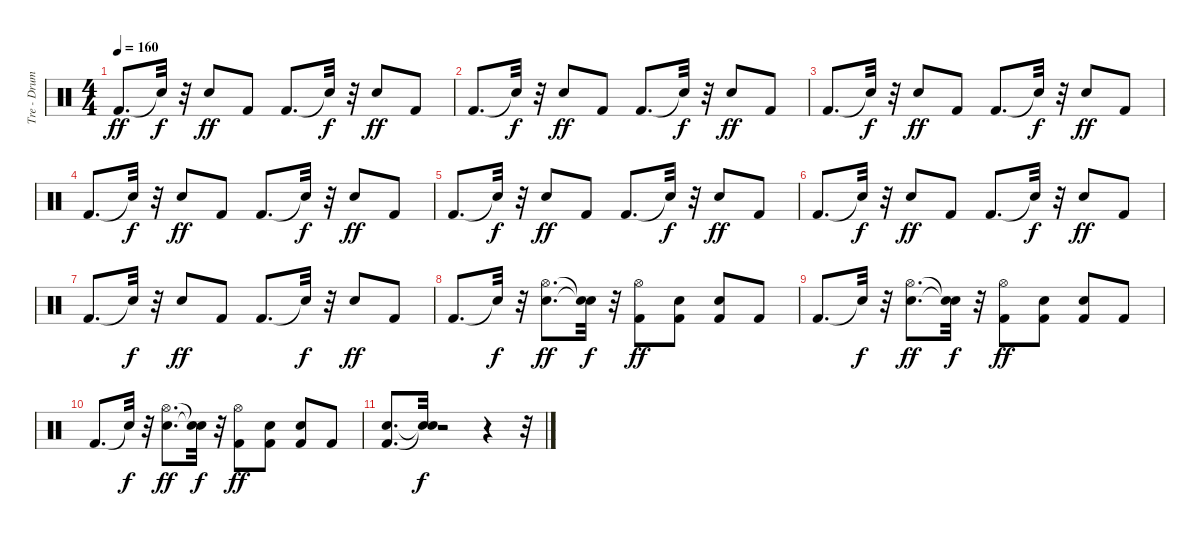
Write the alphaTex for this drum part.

\track ("Tre - Drums-2" "Tre - Drum") {instrument percussion}
\staff {score}
\articulation defaults
\ts (4 4)
\tempo 160
\clef neutral
\ks c "Kick (hit) 2".8{d dy ff} "Snare (hit)"{t}.32{dy f}
r.32 "Electric Snare (hit)".8{dy ff} "Kick (hit) 2".8 "Kick (hit) 2".8{d} "Snare (hit)"{t}.32{dy f} r.32 "Electric Snare (hit)".8{dy ff} "Kick (hit) 2".8 |
"Kick (hit) 2".8{d} "Snare (hit)"{t}.32{dy f} r.32 "Electric Snare (hit)".8{dy ff} "Kick (hit) 2".8 "Kick (hit) 2".8{d} "Snare (hit)"{t}.32{dy f} r.32 "Electric Snare (hit)".8{dy ff} "Kick (hit) 2".8 |
"Kick (hit) 2".8{d} "Snare (hit)"{t}.32{dy f} r.32 "Electric Snare (hit)".8{dy ff} "Kick (hit) 2".8 "Kick (hit) 2".8{d} "Snare (hit)"{t}.32{dy f} r.32 "Electric Snare (hit)".8{dy ff} "Kick (hit) 2".8 |
"Kick (hit) 2".8{d} "Snare (hit)"{t}.32{dy f} r.32 "Electric Snare (hit)".8{dy ff} "Kick (hit) 2".8 "Kick (hit) 2".8{d} "Snare (hit)"{t}.32{dy f} r.32 "Electric Snare (hit)".8{dy ff} "Kick (hit) 2".8 |
"Kick (hit) 2".8{d} "Snare (hit)"{t}.32{dy f} r.32 "Electric Snare (hit)".8{dy ff} "Kick (hit) 2".8 "Kick (hit) 2".8{d} "Snare (hit)"{t}.32{dy f} r.32 "Electric Snare (hit)".8{dy ff} "Kick (hit) 2".8 |
"Kick (hit) 2".8{d} "Snare (hit)"{t}.32{dy f} r.32 "Electric Snare (hit)".8{dy ff} "Kick (hit) 2".8 "Kick (hit) 2".8{d} "Snare (hit)"{t}.32{dy f} r.32 "Electric Snare (hit)".8{dy ff} "Kick (hit) 2".8 |
"Kick (hit) 2".8{d} "Snare (hit)"{t}.32{dy f} r.32 "Electric Snare (hit)".8{dy ff} "Kick (hit) 2".8 "Kick (hit) 2".8{d} "Snare (hit)"{t}.32{dy f} r.32 "Electric Snare (hit)".8{dy ff} "Kick (hit) 2".8 |
"Kick (hit) 2".8{d} "Snare (hit)"{t}.32{dy f} r.32 ("Electric Snare (hit)" "Hi-Hat (open)").8{d dy ff} ("Snare (hit)"{t} "Snare (hit)"{t}).32{dy f} r.32 ("Kick (hit) 2" "Hi-Hat (open)").8{dy ff} ("Kick (hit) 2" "Electric Snare (hit)").8 ("Kick (hit) 2" "Electric Snare (hit)").8 "Kick (hit) 2".8 |
"Kick (hit) 2".8{d} "Snare (hit)"{t}.32{dy f} r.32 ("Electric Snare (hit)" "Hi-Hat (open)").8{d dy ff} ("Snare (hit)"{t} "Snare (hit)"{t}).32{dy f} r.32 ("Kick (hit) 2" "Hi-Hat (open)").8{dy ff} ("Kick (hit) 2" "Electric Snare (hit)").8 ("Kick (hit) 2" "Electric Snare (hit)").8 "Kick (hit) 2".8 |
"Kick (hit) 2".8{d} "Snare (hit)"{t}.32{dy f} r.32 ("Electric Snare (hit)" "Hi-Hat (open)").8{d dy ff} ("Snare (hit)"{t} "Snare (hit)"{t}).32{dy f} r.32 ("Kick (hit) 2" "Hi-Hat (open)").8{dy ff} ("Kick (hit) 2" "Electric Snare (hit)").8 ("Kick (hit) 2" "Electric Snare (hit)").8 "Kick (hit) 2".8 |
("Kick (hit) 2" "Electric Snare (hit)").8{d} ("Snare (hit)"{t} "Snare (hit)"{t}).32{dy f} r.2 r.4 r.32
